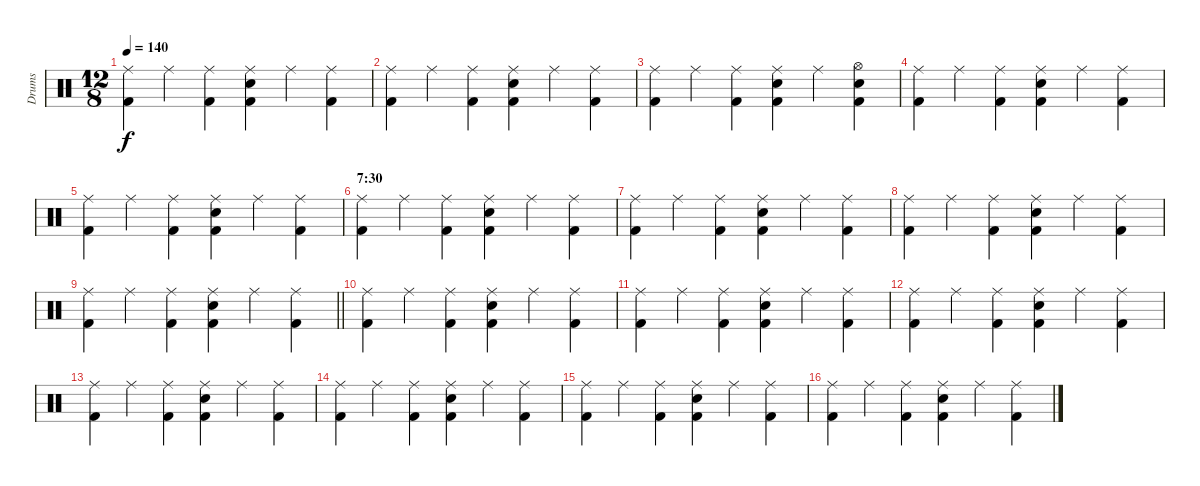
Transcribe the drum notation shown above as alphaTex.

\track ("Drums" "Drums") {instrument percussion}
\staff {score}
\articulation defaults
\ts (12 8)
\tempo 140
\clef neutral
\ks c
("Ride (middle)" "Kick (hit) 2").4{dy f} "Ride (middle)".4 ("Ride (middle)" "Kick (hit) 2").4 ("Ride (middle)" "Snare (hit) 2" "Kick (hit) 2").4 "Ride (middle)".4 ("Ride (middle)" "Kick (hit) 2").4 |
("Ride (middle)" "Kick (hit) 2").4 "Ride (middle)".4 ("Ride (middle)" "Kick (hit) 2").4 ("Ride (middle)" "Snare (hit) 2" "Kick (hit) 2").4 "Ride (middle)".4 ("Ride (middle)" "Kick (hit) 2").4 |
("Ride (middle)" "Kick (hit) 2").4 "Ride (middle)".4 ("Ride (middle)" "Kick (hit) 2").4 ("Ride (middle)" "Snare (hit) 2" "Kick (hit) 2").4 "Ride (middle)".4 ("Hi-Hat (open)" "Snare (hit) 2" "Kick (hit) 2").4 |
("Ride (middle)" "Kick (hit) 2").4 "Ride (middle)".4 ("Ride (middle)" "Kick (hit) 2").4 ("Ride (middle)" "Snare (hit) 2" "Kick (hit) 2").4 "Ride (middle)".4 ("Ride (middle)" "Kick (hit) 2").4 |
("Ride (middle)" "Kick (hit) 2").4 "Ride (middle)".4 ("Ride (middle)" "Kick (hit) 2").4 ("Ride (middle)" "Snare (hit) 2" "Kick (hit) 2").4 "Ride (middle)".4 ("Ride (middle)" "Kick (hit) 2").4 |
\section ("" "7:30")
("Ride (middle)" "Kick (hit) 2").4 "Ride (middle)".4 ("Ride (middle)" "Kick (hit) 2").4 ("Ride (middle)" "Snare (hit) 2" "Kick (hit) 2").4 "Ride (middle)".4 ("Ride (middle)" "Kick (hit) 2").4 |
("Ride (middle)" "Kick (hit) 2").4 "Ride (middle)".4 ("Ride (middle)" "Kick (hit) 2").4 ("Ride (middle)" "Snare (hit) 2" "Kick (hit) 2").4 "Ride (middle)".4 ("Ride (middle)" "Kick (hit) 2").4 |
("Ride (middle)" "Kick (hit) 2").4 "Ride (middle)".4 ("Ride (middle)" "Kick (hit) 2").4 ("Ride (middle)" "Snare (hit) 2" "Kick (hit) 2").4 "Ride (middle)".4 ("Ride (middle)" "Kick (hit) 2").4 |
\barLineRight lightlight
("Ride (middle)" "Kick (hit) 2").4 "Ride (middle)".4 ("Ride (middle)" "Kick (hit) 2").4 ("Ride (middle)" "Snare (hit) 2" "Kick (hit) 2").4 "Ride (middle)".4 ("Ride (middle)" "Kick (hit) 2").4 |
("Ride (middle)" "Kick (hit) 2").4 "Ride (middle)".4 ("Ride (middle)" "Kick (hit) 2").4 ("Ride (middle)" "Snare (hit) 2" "Kick (hit) 2").4 "Ride (middle)".4 ("Ride (middle)" "Kick (hit) 2").4 |
("Ride (middle)" "Kick (hit) 2").4 "Ride (middle)".4 ("Ride (middle)" "Kick (hit) 2").4 ("Ride (middle)" "Snare (hit) 2" "Kick (hit) 2").4 "Ride (middle)".4 ("Ride (middle)" "Kick (hit) 2").4 |
("Ride (middle)" "Kick (hit) 2").4 "Ride (middle)".4 ("Ride (middle)" "Kick (hit) 2").4 ("Ride (middle)" "Snare (hit) 2" "Kick (hit) 2").4 "Ride (middle)".4 ("Ride (middle)" "Kick (hit) 2").4 |
("Ride (middle)" "Kick (hit) 2").4 "Ride (middle)".4 ("Ride (middle)" "Kick (hit) 2").4 ("Ride (middle)" "Snare (hit) 2" "Kick (hit) 2").4 "Ride (middle)".4 ("Ride (middle)" "Kick (hit) 2").4 |
("Ride (middle)" "Kick (hit) 2").4 "Ride (middle)".4 ("Ride (middle)" "Kick (hit) 2").4 ("Ride (middle)" "Snare (hit) 2" "Kick (hit) 2").4 "Ride (middle)".4 ("Ride (middle)" "Kick (hit) 2").4 |
("Ride (middle)" "Kick (hit) 2").4 "Ride (middle)".4 ("Ride (middle)" "Kick (hit) 2").4 ("Ride (middle)" "Snare (hit) 2" "Kick (hit) 2").4 "Ride (middle)".4 ("Ride (middle)" "Kick (hit) 2").4 |
("Ride (middle)" "Kick (hit) 2").4 "Ride (middle)".4 ("Ride (middle)" "Kick (hit) 2").4 ("Ride (middle)" "Snare (hit) 2" "Kick (hit) 2").4 "Ride (middle)".4 ("Ride (middle)" "Kick (hit) 2").4
